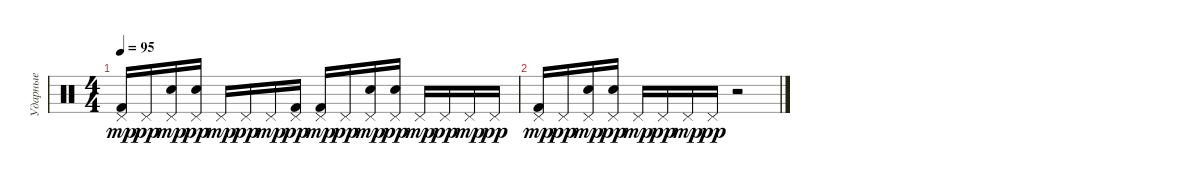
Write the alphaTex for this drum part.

\track ("Ударные" "Ударные") {instrument percussion}
\staff {score}
\articulation defaults
\ts (4 4)
\tempo 95
\clef neutral
\ks c
("Pedal Hi-Hat (hit)" "Kick (hit) 2").16{dy mp} "Pedal Hi-Hat (hit)".16{dy pp} ("Pedal Hi-Hat (hit)" "Snare (hit) 2").16{dy mp} ("Pedal Hi-Hat (hit)" "Snare (hit) 2").16{dy pp} "Pedal Hi-Hat (hit)".16{dy mp} "Pedal Hi-Hat (hit)".16{dy pp} "Pedal Hi-Hat (hit)".16{dy mp} ("Pedal Hi-Hat (hit)" "Kick (hit) 2").16{dy pp} ("Pedal Hi-Hat (hit)" "Kick (hit) 2").16{dy mp} "Pedal Hi-Hat (hit)".16{dy pp} ("Pedal Hi-Hat (hit)" "Snare (hit) 2").16{dy mp} ("Pedal Hi-Hat (hit)" "Snare (hit) 2").16{dy pp} "Pedal Hi-Hat (hit)".16{dy mp} "Pedal Hi-Hat (hit)".16{dy pp} "Pedal Hi-Hat (hit)".16{dy mp} "Pedal Hi-Hat (hit)".16{dy pp} |
("Pedal Hi-Hat (hit)" "Kick (hit) 2").16{dy mp} "Pedal Hi-Hat (hit)".16{dy pp} ("Pedal Hi-Hat (hit)" "Snare (hit) 2").16{dy mp} ("Pedal Hi-Hat (hit)" "Snare (hit) 2").16{dy pp} "Pedal Hi-Hat (hit)".16{dy mp} "Pedal Hi-Hat (hit)".16{dy pp} "Pedal Hi-Hat (hit)".16{dy mp} "Pedal Hi-Hat (hit)".16{dy pp} r.2
